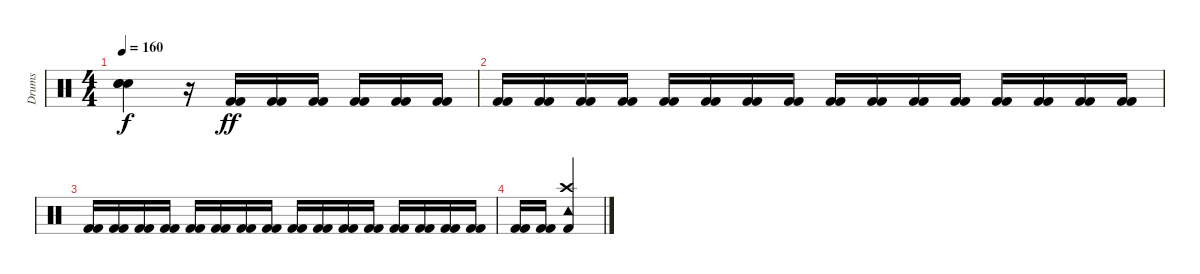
\track ("Drums" "Drums") {instrument percussion}
\staff {score}
\articulation defaults
\ts (4 4)
\tempo 160
\clef neutral
\ks c
("Snare (hit)"{t} "Snare (hit)"{t} "Snare (hit)"{t}).4{dy f} r.16 ("Kick (hit) 2" "Kick (hit) 2").16{dy ff} ("Kick (hit) 2" "Kick (hit) 2").16 ("Kick (hit) 2" "Kick (hit) 2").16 ("Kick (hit) 2" "Kick (hit) 2").16 ("Kick (hit) 2" "Kick (hit) 2").16 ("Kick (hit) 2" "Kick (hit) 2").16 |
("Kick (hit) 2" "Kick (hit) 2").16 ("Kick (hit) 2" "Kick (hit) 2").16 ("Kick (hit) 2" "Kick (hit) 2").16 ("Kick (hit) 2" "Kick (hit) 2").16 ("Kick (hit) 2" "Kick (hit) 2").16 ("Kick (hit) 2" "Kick (hit) 2").16 ("Kick (hit) 2" "Kick (hit) 2").16 ("Kick (hit) 2" "Kick (hit) 2").16 ("Kick (hit) 2" "Kick (hit) 2").16 ("Kick (hit) 2" "Kick (hit) 2").16 ("Kick (hit) 2" "Kick (hit) 2").16 ("Kick (hit) 2" "Kick (hit) 2").16 ("Kick (hit) 2" "Kick (hit) 2").16 ("Kick (hit) 2" "Kick (hit) 2").16 ("Kick (hit) 2" "Kick (hit) 2").16 ("Kick (hit) 2" "Kick (hit) 2").16 |
("Kick (hit) 2" "Kick (hit) 2").16 ("Kick (hit) 2" "Kick (hit) 2").16 ("Kick (hit) 2" "Kick (hit) 2").16 ("Kick (hit) 2" "Kick (hit) 2").16 ("Kick (hit) 2" "Kick (hit) 2").16 ("Kick (hit) 2" "Kick (hit) 2").16 ("Kick (hit) 2" "Kick (hit) 2").16 ("Kick (hit) 2" "Kick (hit) 2").16 ("Kick (hit) 2" "Kick (hit) 2").16 ("Kick (hit) 2" "Kick (hit) 2").16 ("Kick (hit) 2" "Kick (hit) 2").16 ("Kick (hit) 2" "Kick (hit) 2").16 ("Kick (hit) 2" "Kick (hit) 2").16 ("Kick (hit) 2" "Kick (hit) 2").16 ("Kick (hit) 2" "Kick (hit) 2").16 ("Kick (hit) 2" "Kick (hit) 2").16 |
("Kick (hit) 2" "Kick (hit) 2").16 ("Kick (hit) 2" "Kick (hit) 2").16 ("Kick (hit) 2" "Crash high (hit)" "Tambourine (hit)").4
